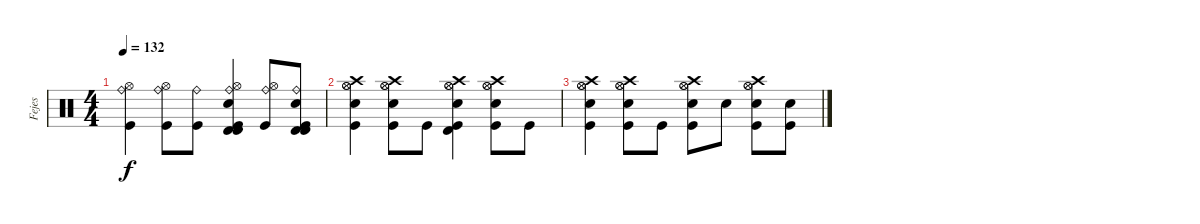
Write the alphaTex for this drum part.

\track ("Fejes" "Fejes") {instrument percussion}
\staff {score}
\articulation defaults
\ts (4 4)
\tempo 132
\clef neutral
\ks c
("Ride (bell)" "Hi-Hat (open)" "Kick (hit)").4{dy f} ("Ride (bell)" "Hi-Hat (open)" "Kick (hit)").8 ("Ride (bell)" "Kick (hit)").8 ("Ride (bell)" "Hi-Hat (open)" "Snare (hit) 2" "Timbale high (hit)" "Timbale high (hit)" "Kick (hit)").4 ("Ride (bell)" "Hi-Hat (open)" "Kick (hit)").8 ("Ride (bell)" "Snare (hit) 2" "Timbale high (hit)" "Timbale high (hit)" "Kick (hit)").8 |
("Hi-Hat (open)" "Hi-Hat (open)" "Snare (hit) 2" "Crash high (hit)" "Kick (hit)").4 ("Hi-Hat (open)" "Hi-Hat (open)" "Snare (hit) 2" "Crash high (hit)" "Kick (hit)").8 "Kick (hit)".8 ("Hi-Hat (open)" "Hi-Hat (open)" "Snare (hit) 2" "Crash high (hit)" "Timbale high (hit)" "Kick (hit)").4 ("Hi-Hat (open)" "Hi-Hat (open)" "Snare (hit) 2" "Crash high (hit)" "Kick (hit)").8 "Kick (hit)".8 |
("Hi-Hat (open)" "Hi-Hat (open)" "Snare (hit) 2" "Crash high (hit)" "Kick (hit)").4 ("Hi-Hat (open)" "Hi-Hat (open)" "Snare (hit) 2" "Crash high (hit)" "Kick (hit)").8 "Kick (hit)".8 ("Hi-Hat (open)" "Hi-Hat (open)" "Snare (hit) 2" "Crash high (hit)" "Kick (hit)").8 "Snare (hit) 2".8 ("Hi-Hat (open)" "Hi-Hat (open)" "Snare (hit) 2" "Crash high (hit)" "Kick (hit)").8 ("Snare (hit) 2" "Kick (hit)").8
